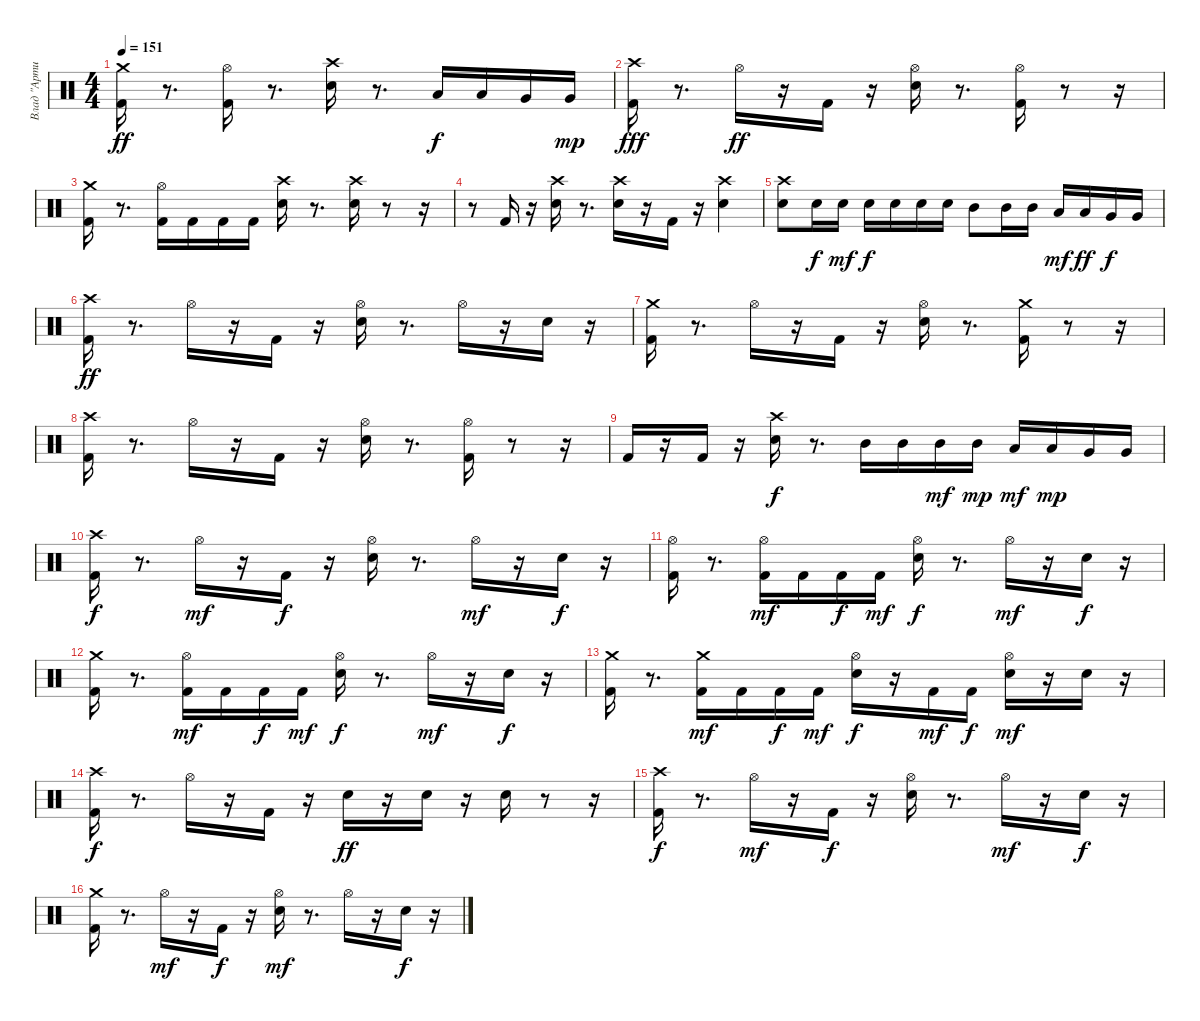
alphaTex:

\track ("Влад \"Артист\"" "Влад \"Арти") {instrument percussion}
\staff {score}
\articulation defaults
\ts (4 4)
\tempo 151
\clef neutral
\ks c
("Crash medium (hit)" "Kick (hit) 2").16{dy ff} r.8{d} ("Hi-Hat (open)" "Kick (hit) 2").16 r.8{d} ("Crash high (hit)" "Snare (hit) 2").16 r.8{d} "Low Tom (hit)".16{dy f} "Low Tom (hit)".16 "Very Low Tom (hit)".16 "Very Low Tom (hit)".16{dy mp} |
("Kick (hit) 2" "Crash high (hit)").16{dy fff} r.8{d} "Hi-Hat (open)".16{dy ff} r.16 "Kick (hit) 2".16 r.16 ("Snare (hit) 2" "Hi-Hat (open)").16 r.8{d} ("Kick (hit) 2" "Hi-Hat (open)").16 r.8 r.16 |
("Kick (hit) 2" "Crash medium (hit)").16 r.8{d} ("Kick (hit) 2" "Hi-Hat (open)").16 "Kick (hit) 2".16 "Kick (hit) 2".16 "Kick (hit) 2".16 ("Snare (hit) 2" "Crash high (hit)").16 r.8{d} ("Snare (hit) 2" "Crash high (hit)").16 r.8 r.16 |
r.8 "Kick (hit) 2".16 r.16 ("Snare (hit) 2" "Crash high (hit)").16 r.8{d} ("Snare (hit) 2" "Crash high (hit)").16 r.16 "Kick (hit) 2".16 r.16 ("Snare (hit) 2" "Crash high (hit)").4 |
("Snare (hit) 2" "Crash high (hit)").8 "Snare (hit) 2".16{dy f} "Snare (hit) 2".16{dy mf} "Snare (hit) 2".16{dy f} "Snare (hit) 2".16 "Snare (hit) 2".16 "Snare (hit) 2".16 "Mid Tom (hit)".8 "Mid Tom (hit)".16 "Mid Tom (hit)".16 "Low Tom (hit)".16{dy mf} "Low Tom (hit)".16{dy ff} "Very Low Tom (hit)".16{dy f} "Very Low Tom (hit)".16 |
("Crash high (hit)" "Kick (hit) 2").16{dy ff} r.8{d} "Hi-Hat (open)".16 r.16 "Kick (hit) 2".16 r.16 ("Snare (hit) 2" "Hi-Hat (open)").16 r.8{d} "Hi-Hat (open)".16 r.16 "Snare (hit) 2".16 r.16 |
("Crash medium (hit)" "Kick (hit) 2").16 r.8{d} "Hi-Hat (open)".16 r.16 "Kick (hit) 2".16 r.16 ("Hi-Hat (open)" "Snare (hit) 2").16 r.8{d} ("Crash medium (hit)" "Kick (hit) 2").16 r.8 r.16 |
("Crash high (hit)" "Kick (hit) 2").16 r.8{d} "Hi-Hat (open)".16 r.16 "Kick (hit) 2".16 r.16 ("Snare (hit) 2" "Hi-Hat (open)").16 r.8{d} ("Kick (hit) 2" "Hi-Hat (open)").16 r.8 r.16 |
"Kick (hit) 2".16 r.16 "Kick (hit) 2".16 r.16 ("Snare (hit) 2" "Crash high (hit)").16{dy f} r.8{d} "Mid Tom (hit)".16 "Mid Tom (hit)".16 "Mid Tom (hit)".16{dy mf} "Mid Tom (hit)".16{dy mp} "Low Tom (hit)".16{dy mf} "Low Tom (hit)".16{dy mp} "Very Low Tom (hit)".16 "Very Low Tom (hit)".16 |
("Crash high (hit)" "Kick (hit) 2").16{dy f} r.8{d} "Hi-Hat (open)".16{dy mf} r.16 "Kick (hit) 2".16{dy f} r.16 ("Snare (hit) 2" "Hi-Hat (open)").16 r.8{d} "Hi-Hat (open)".16{dy mf} r.16 "Snare (hit) 2".16{dy f} r.16 |
("Kick (hit) 2" "Hi-Hat (open)").16 r.8{d} ("Hi-Hat (open)" "Kick (hit) 2").16{dy mf} "Kick (hit) 2".16 "Kick (hit) 2".16{dy f} "Kick (hit) 2".16{dy mf} ("Hi-Hat (open)" "Snare (hit) 2").16{dy f} r.8{d} "Hi-Hat (open)".16{dy mf} r.16 "Snare (hit) 2".16{dy f} r.16 |
("Crash medium (hit)" "Kick (hit) 2").16 r.8{d} ("Hi-Hat (open)" "Kick (hit) 2").16{dy mf} "Kick (hit) 2".16 "Kick (hit) 2".16{dy f} "Kick (hit) 2".16{dy mf} ("Hi-Hat (open)" "Snare (hit) 2").16{dy f} r.8{d} "Hi-Hat (open)".16{dy mf} r.16 "Snare (hit) 2".16{dy f} r.16 |
("Kick (hit) 2" "Crash medium (hit)").16 r.8{d} ("Crash medium (hit)" "Kick (hit) 2").16{dy mf} "Kick (hit) 2".16 "Kick (hit) 2".16{dy f} "Kick (hit) 2".16{dy mf} ("Hi-Hat (open)" "Snare (hit) 2").16{dy f} r.16 "Kick (hit) 2".16{dy mf} "Kick (hit) 2".16{dy f} ("Hi-Hat (open)" "Snare (hit) 2").16{dy mf} r.16 "Snare (hit) 2".16 r.16 |
("Kick (hit) 2" "Crash high (hit)").16{dy f} r.8{d} "Hi-Hat (open)".16 r.16 "Kick (hit) 2".16 r.16 "Snare (hit) 2".16{dy ff} r.16 "Snare (hit) 2".16 r.16 "Snare (hit) 2".16 r.8 r.16 |
("Crash high (hit)" "Kick (hit) 2").16{dy f} r.8{d} "Hi-Hat (open)".16{dy mf} r.16 "Kick (hit) 2".16{dy f} r.16 ("Snare (hit) 2" "Hi-Hat (open)").16 r.8{d} "Hi-Hat (open)".16{dy mf} r.16 "Snare (hit) 2".16{dy f} r.16 |
("Crash medium (hit)" "Kick (hit) 2").16 r.8{d} "Hi-Hat (open)".16{dy mf} r.16 "Kick (hit) 2".16{dy f} r.16 ("Hi-Hat (open)" "Snare (hit) 2").16{dy mf} r.8{d} "Hi-Hat (open)".16 r.16 "Snare (hit) 2".16{dy f} r.16
